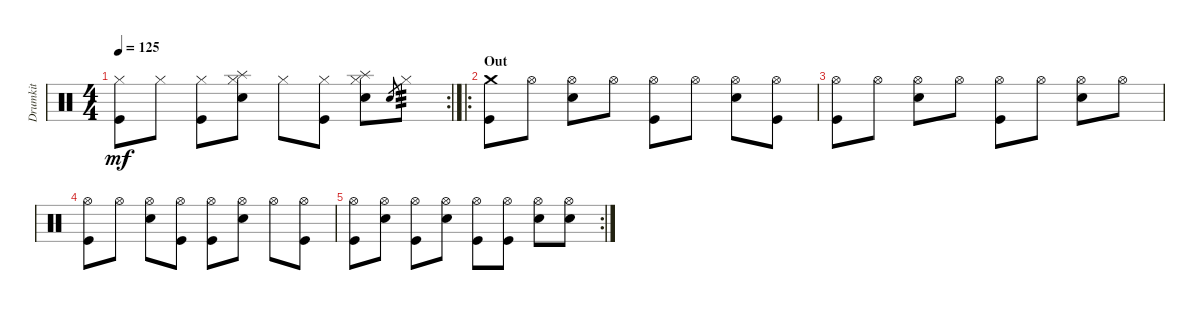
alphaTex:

\track ("Drumkit" "Drumkit") {instrument percussion}
\staff {score}
\articulation defaults
\rc 2
\ts (4 4)
\tempo 125
\clef neutral
\ks c
("Kick (hit)" "Hi-Hat (closed)").8{dy mf} "Hi-Hat (closed)".8 ("Kick (hit)" "Hi-Hat (closed)").8 ("Snare (hit) 2" "Splash (hit)" "Hi-Hat (closed)").8 "Hi-Hat (closed)".8 ("Kick (hit)" "Hi-Hat (closed)").8 ("Snare (hit) 2" "Splash (hit)" "Hi-Hat (closed)").8 "Snare (hit)".8{gr} "Hi-Hat (closed)".8{tp 3} |
\ro
\section ("" "Out")
("Crash medium (hit)" "Kick (hit)").8 "Hi-Hat (open)".8 ("Hi-Hat (open)" "Snare (hit) 2").8 "Hi-Hat (open)".8 ("Hi-Hat (open)" "Kick (hit)").8 "Hi-Hat (open)".8 ("Hi-Hat (open)" "Snare (hit) 2").8 ("Hi-Hat (open)" "Kick (hit)").8 |
("Hi-Hat (open)" "Kick (hit)").8 "Hi-Hat (open)".8 ("Hi-Hat (open)" "Snare (hit) 2").8 "Hi-Hat (open)".8 ("Hi-Hat (open)" "Kick (hit)").8 "Hi-Hat (open)".8 ("Hi-Hat (open)" "Snare (hit) 2").8 "Hi-Hat (open)".8 |
("Hi-Hat (open)" "Kick (hit)").8 "Hi-Hat (open)".8 ("Hi-Hat (open)" "Snare (hit) 2").8 ("Hi-Hat (open)" "Kick (hit)").8 ("Hi-Hat (open)" "Kick (hit)").8 ("Hi-Hat (open)" "Snare (hit) 2").8 "Hi-Hat (open)".8 ("Hi-Hat (open)" "Kick (hit)").8 |
\rc 2
("Hi-Hat (open)" "Kick (hit)").8 ("Hi-Hat (open)" "Snare (hit) 2").8 ("Hi-Hat (open)" "Kick (hit)").8 ("Hi-Hat (open)" "Snare (hit) 2").8 ("Hi-Hat (open)" "Kick (hit)").8 ("Hi-Hat (open)" "Kick (hit)").8 ("Hi-Hat (open)" "Snare (hit) 2").8 ("Hi-Hat (open)" "Snare (hit) 2").8
